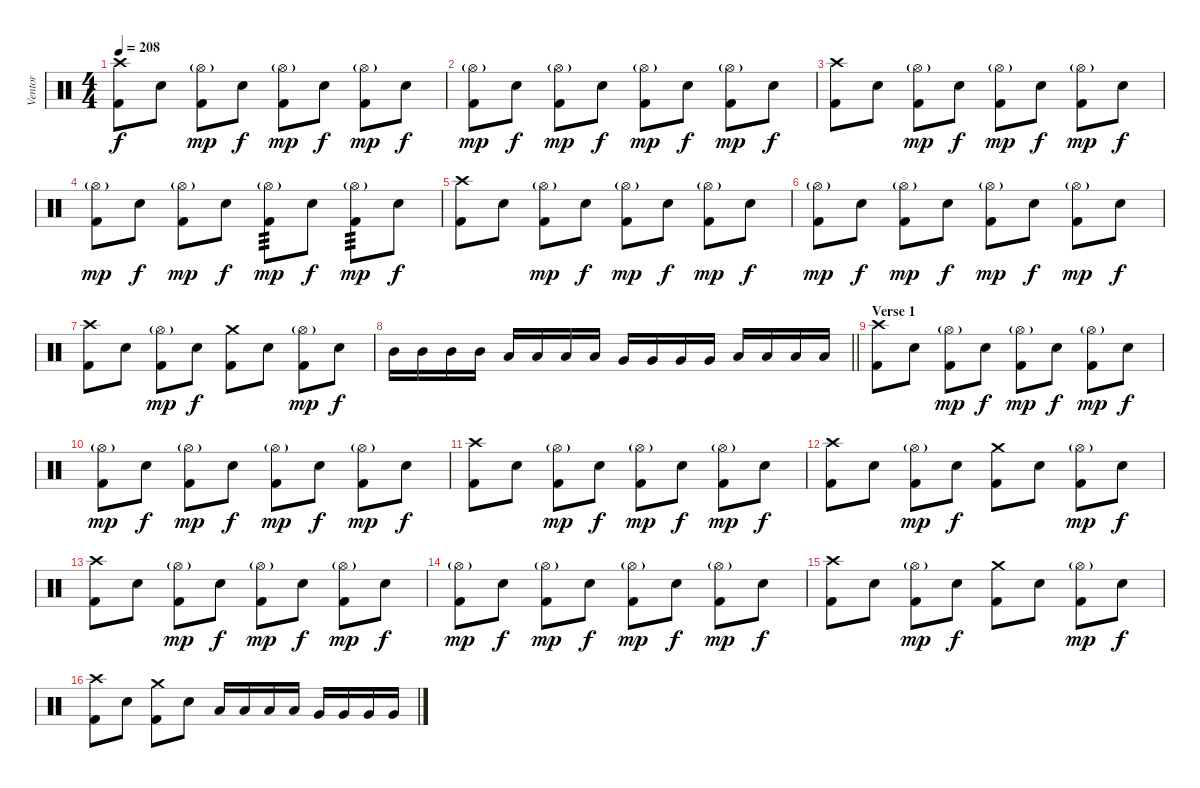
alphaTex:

\track ("Ventor" "Ventor") {instrument percussion}
\staff {score}
\articulation defaults
\ts (4 4)
\tempo 208
\clef neutral
\ks c
("Crash high (hit)" "Kick (hit) 2").8{dy f} "Electric Snare (hit)".8 ("Hi-Hat (open)"{g} "Kick (hit) 2").8{dy mp} "Electric Snare (hit)".8{dy f} ("Hi-Hat (open)"{g} "Kick (hit) 2").8{dy mp} "Electric Snare (hit)".8{dy f} ("Hi-Hat (open)"{g} "Kick (hit) 2").8{dy mp} "Electric Snare (hit)".8{dy f} |
("Hi-Hat (open)"{g} "Kick (hit) 2").8{dy mp} "Electric Snare (hit)".8{dy f} ("Hi-Hat (open)"{g} "Kick (hit) 2").8{dy mp} "Electric Snare (hit)".8{dy f} ("Hi-Hat (open)"{g} "Kick (hit) 2").8{dy mp} "Electric Snare (hit)".8{dy f} ("Hi-Hat (open)"{g} "Kick (hit) 2").8{dy mp} "Electric Snare (hit)".8{dy f} |
("Crash high (hit)" "Kick (hit) 2").8 "Electric Snare (hit)".8 ("Hi-Hat (open)"{g} "Kick (hit) 2").8{dy mp} "Electric Snare (hit)".8{dy f} ("Hi-Hat (open)"{g} "Kick (hit) 2").8{dy mp} "Electric Snare (hit)".8{dy f} ("Hi-Hat (open)"{g} "Kick (hit) 2").8{dy mp} "Electric Snare (hit)".8{dy f} |
("Hi-Hat (open)"{g} "Kick (hit) 2").8{dy mp} "Electric Snare (hit)".8{dy f} ("Hi-Hat (open)"{g} "Kick (hit) 2").8{dy mp} "Electric Snare (hit)".8{dy f} ("Hi-Hat (open)"{g} "Kick (hit) 2").8{tp 3 dy mp} "Electric Snare (hit)".8{dy f} ("Hi-Hat (open)"{g} "Kick (hit) 2").8{tp 3 dy mp} "Electric Snare (hit)".8{dy f} |
("Crash high (hit)" "Kick (hit) 2").8 "Electric Snare (hit)".8 ("Hi-Hat (open)"{g} "Kick (hit) 2").8{dy mp} "Electric Snare (hit)".8{dy f} ("Hi-Hat (open)"{g} "Kick (hit) 2").8{dy mp} "Electric Snare (hit)".8{dy f} ("Hi-Hat (open)"{g} "Kick (hit) 2").8{dy mp} "Electric Snare (hit)".8{dy f} |
("Hi-Hat (open)"{g} "Kick (hit) 2").8{dy mp} "Electric Snare (hit)".8{dy f} ("Hi-Hat (open)"{g} "Kick (hit) 2").8{dy mp} "Electric Snare (hit)".8{dy f} ("Hi-Hat (open)"{g} "Kick (hit) 2").8{dy mp} "Electric Snare (hit)".8{dy f} ("Hi-Hat (open)"{g} "Kick (hit) 2").8{dy mp} "Electric Snare (hit)".8{dy f} |
("Crash high (hit)" "Kick (hit) 2").8 "Electric Snare (hit)".8 ("Hi-Hat (open)"{g} "Kick (hit) 2").8{dy mp} "Electric Snare (hit)".8{dy f} ("Crash medium (hit)" "Kick (hit) 2").8 "Electric Snare (hit)".8 ("Hi-Hat (open)"{g} "Kick (hit) 2").8{dy mp} "Electric Snare (hit)".8{dy f} |
\barLineRight lightlight "Mid Tom (hit)".16 "Mid Tom (hit)".16 "Mid Tom (hit)".16 "Mid Tom (hit)".16 "Low Tom (hit)".16 "Low Tom (hit)".16 "Low Tom (hit)".16 "Low Tom (hit)".16 "Very Low Tom (hit)".16 "Very Low Tom (hit)".16 "Very Low Tom (hit)".16 "Very Low Tom (hit)".16 "Low Floor Tom (hit)".16 "Low Floor Tom (hit)".16 "Low Floor Tom (hit)".16 "Low Floor Tom (hit)".16
|
\section ("" "Verse 1")
("Crash high (hit)" "Kick (hit) 2").8 "Electric Snare (hit)".8 ("Hi-Hat (open)"{g} "Kick (hit) 2").8{dy mp} "Electric Snare (hit)".8{dy f} ("Hi-Hat (open)"{g} "Kick (hit) 2").8{dy mp} "Electric Snare (hit)".8{dy f} ("Hi-Hat (open)"{g} "Kick (hit) 2").8{dy mp} "Electric Snare (hit)".8{dy f} |
("Hi-Hat (open)"{g} "Kick (hit) 2").8{dy mp} "Electric Snare (hit)".8{dy f} ("Hi-Hat (open)"{g} "Kick (hit) 2").8{dy mp} "Electric Snare (hit)".8{dy f} ("Hi-Hat (open)"{g} "Kick (hit) 2").8{dy mp} "Electric Snare (hit)".8{dy f} ("Hi-Hat (open)"{g} "Kick (hit) 2").8{dy mp} "Electric Snare (hit)".8{dy f} |
("Crash high (hit)" "Kick (hit) 2").8 "Electric Snare (hit)".8 ("Hi-Hat (open)"{g} "Kick (hit) 2").8{dy mp} "Electric Snare (hit)".8{dy f} ("Hi-Hat (open)"{g} "Kick (hit) 2").8{dy mp} "Electric Snare (hit)".8{dy f} ("Hi-Hat (open)"{g} "Kick (hit) 2").8{dy mp} "Electric Snare (hit)".8{dy f} |
("Crash high (hit)" "Kick (hit) 2").8 "Electric Snare (hit)".8 ("Hi-Hat (open)"{g} "Kick (hit) 2").8{dy mp} "Electric Snare (hit)".8{dy f} ("Crash medium (hit)" "Kick (hit) 2").8 "Electric Snare (hit)".8 ("Hi-Hat (open)"{g} "Kick (hit) 2").8{dy mp} "Electric Snare (hit)".8{dy f} |
("Crash high (hit)" "Kick (hit) 2").8 "Electric Snare (hit)".8 ("Hi-Hat (open)"{g} "Kick (hit) 2").8{dy mp} "Electric Snare (hit)".8{dy f} ("Hi-Hat (open)"{g} "Kick (hit) 2").8{dy mp} "Electric Snare (hit)".8{dy f} ("Hi-Hat (open)"{g} "Kick (hit) 2").8{dy mp} "Electric Snare (hit)".8{dy f} |
("Hi-Hat (open)"{g} "Kick (hit) 2").8{dy mp} "Electric Snare (hit)".8{dy f} ("Hi-Hat (open)"{g} "Kick (hit) 2").8{dy mp} "Electric Snare (hit)".8{dy f} ("Hi-Hat (open)"{g} "Kick (hit) 2").8{dy mp} "Electric Snare (hit)".8{dy f} ("Hi-Hat (open)"{g} "Kick (hit) 2").8{dy mp} "Electric Snare (hit)".8{dy f} |
("Crash high (hit)" "Kick (hit) 2").8 "Electric Snare (hit)".8 ("Hi-Hat (open)"{g} "Kick (hit) 2").8{dy mp} "Electric Snare (hit)".8{dy f} ("Crash medium (hit)" "Kick (hit) 2").8 "Electric Snare (hit)".8 ("Hi-Hat (open)"{g} "Kick (hit) 2").8{dy mp} "Electric Snare (hit)".8{dy f} |
("Crash high (hit)" "Kick (hit) 2").8 "Electric Snare (hit)".8 ("Crash medium (hit)" "Kick (hit) 2").8 "Electric Snare (hit)".8 "Low Tom (hit)".16 "Low Tom (hit)".16 "Low Tom (hit)".16 "Low Tom (hit)".16 "Very Low Tom (hit)".16 "Very Low Tom (hit)".16 "Very Low Tom (hit)".16 "Very Low Tom (hit)".16
